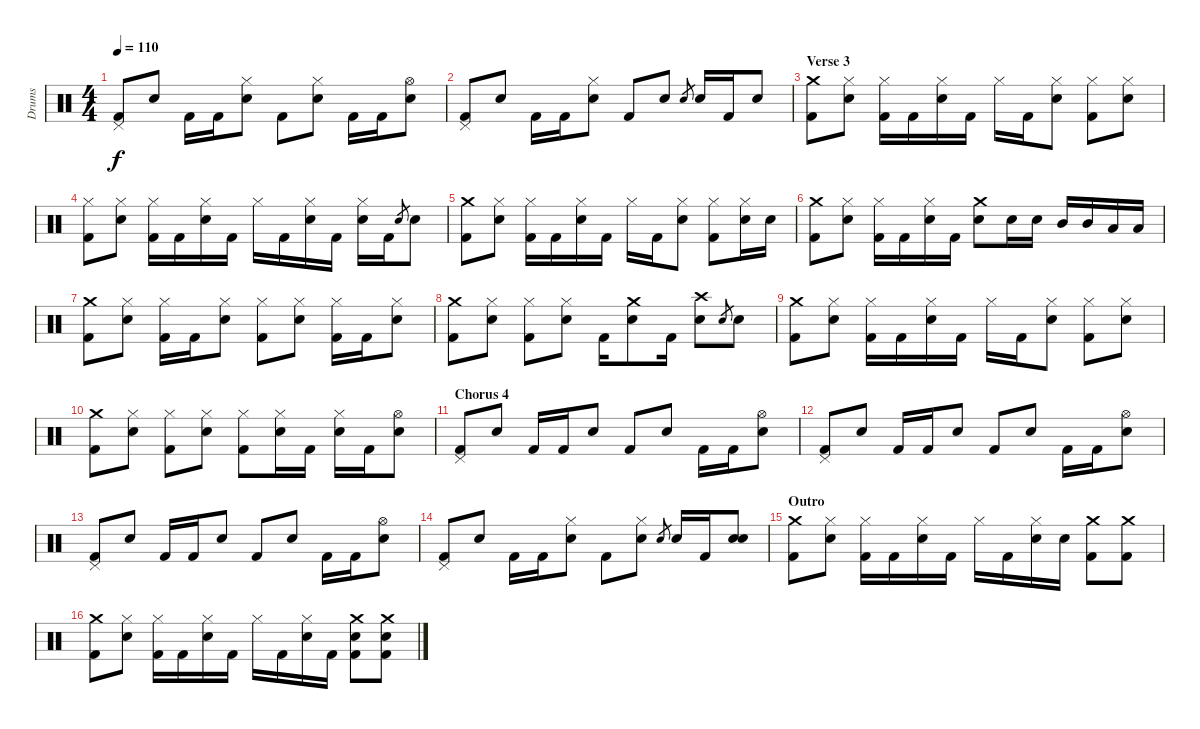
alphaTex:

\track ("Drums" "Drums") {instrument percussion}
\staff {score}
\articulation defaults
\ts (4 4)
\tempo 110
\clef neutral
\ks c
("Pedal Hi-Hat (hit)" "Kick (hit) 2").8{dy f} "Snare (hit) 2".8 "Kick (hit) 2".16 "Kick (hit) 2".16 ("Hi-Hat (closed)" "Snare (hit) 2").8 "Kick (hit) 2".8 ("Hi-Hat (closed)" "Snare (hit) 2").8 "Kick (hit) 2".16 "Kick (hit) 2".16 ("Hi-Hat (open)" "Snare (hit) 2").8 |
("Pedal Hi-Hat (hit)" "Kick (hit) 2").8 "Snare (hit) 2".8 "Kick (hit) 2".16 "Kick (hit) 2".16 ("Hi-Hat (closed)" "Snare (hit) 2").8 "Kick (hit) 2".8 "Snare (hit) 2".8 "Snare (hit) 2".8{gr} "Snare (hit) 2".16 "Kick (hit) 2".16 "Snare (hit) 2".8 |
\section ("" "Verse 3")
("Crash medium (hit)" "Kick (hit) 2").8 ("Hi-Hat (closed)" "Snare (hit) 2").8 ("Hi-Hat (closed)" "Kick (hit) 2").16 "Kick (hit) 2".16 ("Hi-Hat (closed)" "Snare (hit) 2").16 "Kick (hit) 2".16 "Hi-Hat (closed)".16 "Kick (hit) 2".16 ("Hi-Hat (closed)" "Snare (hit) 2").8 ("Hi-Hat (closed)" "Kick (hit) 2").8 ("Hi-Hat (closed)" "Snare (hit) 2").8 |
("Hi-Hat (closed)" "Kick (hit) 2").8 ("Hi-Hat (closed)" "Snare (hit) 2").8 ("Hi-Hat (closed)" "Kick (hit) 2").16 "Kick (hit) 2".16 ("Hi-Hat (closed)" "Snare (hit) 2").16 "Kick (hit) 2".16 "Hi-Hat (closed)".16 "Kick (hit) 2".16 ("Hi-Hat (closed)" "Snare (hit) 2").16 "Kick (hit) 2".16 ("Hi-Hat (closed)" "Snare (hit) 2").16 "Kick (hit) 2".16 "Snare (hit) 2".8{gr} "Snare (hit) 2".8 |
("Crash medium (hit)" "Kick (hit) 2").8 ("Hi-Hat (closed)" "Snare (hit) 2").8 ("Hi-Hat (closed)" "Kick (hit) 2").16 "Kick (hit) 2".16 ("Hi-Hat (closed)" "Snare (hit) 2").16 "Kick (hit) 2".16 "Hi-Hat (closed)".16 "Kick (hit) 2".16 ("Hi-Hat (closed)" "Snare (hit) 2").8 ("Hi-Hat (closed)" "Kick (hit) 2").8 ("Hi-Hat (closed)" "Snare (hit) 2").16 "Snare (hit) 2".16 |
("Crash medium (hit)" "Kick (hit) 2").8 ("Hi-Hat (closed)" "Snare (hit) 2").8 ("Hi-Hat (closed)" "Kick (hit) 2").16 "Kick (hit) 2".16 ("Hi-Hat (closed)" "Snare (hit) 2").16 "Kick (hit) 2".16 ("Crash medium (hit)" "Snare (hit) 2").8 "Snare (hit) 2".16 "Snare (hit) 2".16 "Mid Tom (hit)".16 "Mid Tom (hit)".16 "Low Tom (hit)".16 "Low Tom (hit)".16 |
("Crash medium (hit)" "Kick (hit) 2").8 ("Hi-Hat (closed)" "Snare (hit) 2").8 ("Hi-Hat (closed)" "Kick (hit) 2").16 "Kick (hit) 2".16 ("Hi-Hat (closed)" "Snare (hit) 2").8 ("Hi-Hat (closed)" "Kick (hit) 2").8 ("Hi-Hat (closed)" "Snare (hit) 2").8 ("Hi-Hat (closed)" "Kick (hit) 2").16 "Kick (hit) 2".16 ("Hi-Hat (closed)" "Snare (hit) 2").8 |
("Crash medium (hit)" "Kick (hit) 2").8 ("Hi-Hat (closed)" "Snare (hit) 2").8 ("Hi-Hat (closed)" "Kick (hit) 2").8 ("Hi-Hat (closed)" "Snare (hit) 2").8 "Kick (hit) 2".16 ("Crash medium (hit)" "Snare (hit) 2").8 "Kick (hit) 2".16 ("Crash high (hit)" "Snare (hit) 2").8 "Snare (hit) 2".8{gr} "Snare (hit) 2".8 |
("Crash medium (hit)" "Kick (hit) 2").8 ("Hi-Hat (closed)" "Snare (hit) 2").8 ("Hi-Hat (closed)" "Kick (hit) 2").16 "Kick (hit) 2".16 ("Hi-Hat (closed)" "Snare (hit) 2").16 "Kick (hit) 2".16 "Hi-Hat (closed)".16 "Kick (hit) 2".16 ("Hi-Hat (closed)" "Snare (hit) 2").8 ("Hi-Hat (closed)" "Kick (hit) 2").8 ("Hi-Hat (closed)" "Snare (hit) 2").8 |
("Crash medium (hit)" "Kick (hit) 2").8 ("Hi-Hat (closed)" "Snare (hit) 2").8 ("Hi-Hat (closed)" "Kick (hit) 2").8 ("Hi-Hat (closed)" "Snare (hit) 2").8 ("Hi-Hat (closed)" "Kick (hit) 2").8 ("Hi-Hat (closed)" "Snare (hit) 2").16 "Kick (hit) 2".16 ("Hi-Hat (closed)" "Snare (hit) 2").16 "Kick (hit) 2".16 ("Hi-Hat (open)" "Snare (hit) 2").8 |
\section ("" "Chorus 4")
("Pedal Hi-Hat (hit)" "Kick (hit) 2").8 "Snare (hit) 2".8 "Kick (hit) 2".16 "Kick (hit) 2".16 "Snare (hit) 2".8 "Kick (hit) 2".8 "Snare (hit) 2".8 "Kick (hit) 2".16 "Kick (hit) 2".16 ("Hi-Hat (open)" "Snare (hit) 2").8 |
("Pedal Hi-Hat (hit)" "Kick (hit) 2").8 "Snare (hit) 2".8 "Kick (hit) 2".16 "Kick (hit) 2".16 "Snare (hit) 2".8 "Kick (hit) 2".8 "Snare (hit) 2".8 "Kick (hit) 2".16 "Kick (hit) 2".16 ("Hi-Hat (open)" "Snare (hit) 2").8 |
("Pedal Hi-Hat (hit)" "Kick (hit) 2").8 "Snare (hit) 2".8 "Kick (hit) 2".16 "Kick (hit) 2".16 "Snare (hit) 2".8 "Kick (hit) 2".8 "Snare (hit) 2".8 "Kick (hit) 2".16 "Kick (hit) 2".16 ("Hi-Hat (open)" "Snare (hit) 2").8 |
("Pedal Hi-Hat (hit)" "Kick (hit) 2").8 "Snare (hit) 2".8 "Kick (hit) 2".16 "Kick (hit) 2".16 ("Hi-Hat (closed)" "Snare (hit) 2").8 "Kick (hit) 2".8 ("Hi-Hat (closed)" "Snare (hit) 2").8 "Snare (hit) 2".8{gr} "Snare (hit) 2".16 "Kick (hit) 2".16 ("Snare (hit) 2" "Snare (hit) 2").8 |
\section ("" "Outro")
("Crash medium (hit)" "Kick (hit) 2").8 ("Hi-Hat (closed)" "Snare (hit) 2").8 ("Hi-Hat (closed)" "Kick (hit) 2").16 "Kick (hit) 2".16 ("Hi-Hat (closed)" "Snare (hit) 2").16 "Kick (hit) 2".16 "Hi-Hat (closed)".16 "Kick (hit) 2".16 ("Hi-Hat (closed)" "Snare (hit) 2").16 "Snare (hit) 2".16 ("Crash medium (hit)" "Kick (hit) 2").8 ("Crash medium (hit)" "Kick (hit) 2").8 |
("Crash medium (hit)" "Kick (hit) 2").8 ("Hi-Hat (closed)" "Snare (hit) 2").8 ("Hi-Hat (closed)" "Kick (hit) 2").16 "Kick (hit) 2".16 ("Hi-Hat (closed)" "Snare (hit) 2").16 "Kick (hit) 2".16 "Hi-Hat (closed)".16 "Kick (hit) 2".16 ("Hi-Hat (closed)" "Snare (hit) 2").16 "Kick (hit) 2".16 ("Crash medium (hit)" "Snare (hit) 2" "Kick (hit) 2").8 ("Crash medium (hit)" "Snare (hit) 2" "Kick (hit) 2").8
